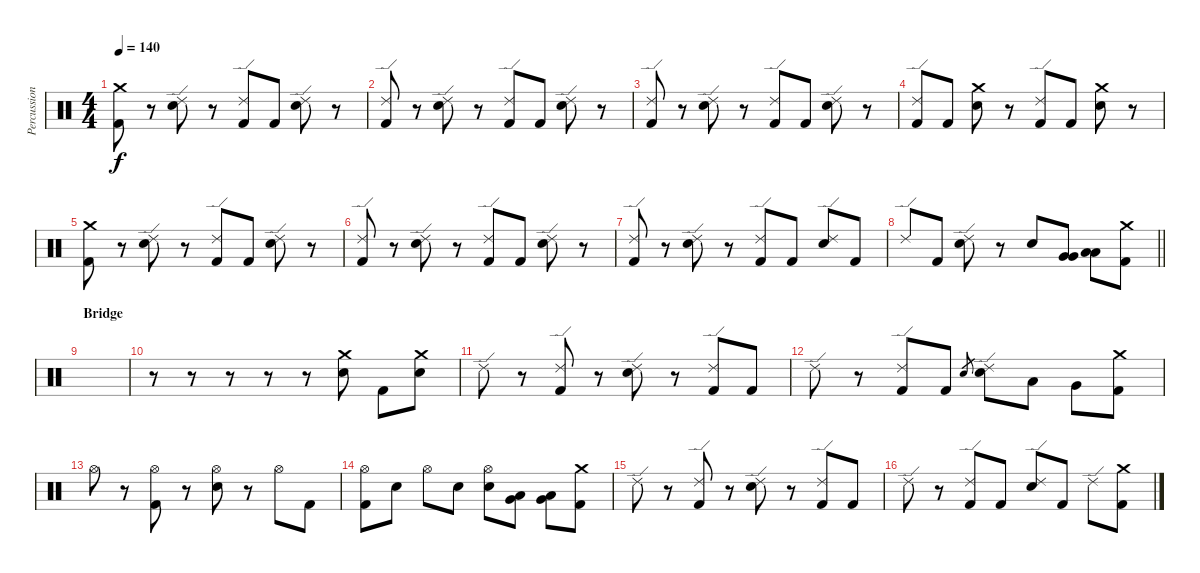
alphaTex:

\track ("Percussion" "Percussion") {instrument percussion}
\staff {score}
\articulation defaults
\ts (4 4)
\tempo 140
\clef neutral
\ks c
("Crash medium (hit)" "Kick (hit) 2").8{dy f} r.8 ("Ride (edge) 2" "Electric Snare (hit)").8 r.8 ("Ride (edge) 2" "Kick (hit) 2").8 "Kick (hit) 2".8 ("Ride (edge) 2" "Electric Snare (hit)").8 r.8 |
("Ride (edge) 2" "Kick (hit) 2").8 r.8 ("Ride (edge) 2" "Electric Snare (hit)").8 r.8 ("Ride (edge) 2" "Kick (hit) 2").8 "Kick (hit) 2".8 ("Ride (edge) 2" "Electric Snare (hit)").8 r.8 |
("Ride (edge) 2" "Kick (hit) 2").8 r.8 ("Ride (edge) 2" "Electric Snare (hit)").8 r.8 ("Ride (edge) 2" "Kick (hit) 2").8 "Kick (hit) 2".8 ("Ride (edge) 2" "Electric Snare (hit)").8 r.8 |
("Ride (edge) 2" "Kick (hit) 2").8 "Kick (hit) 2".8 ("Crash medium (hit)" "Electric Snare (hit)").8 r.8 ("Ride (edge) 2" "Kick (hit) 2").8 "Kick (hit) 2".8 ("Crash medium (hit)" "Electric Snare (hit)").8 r.8 |
("Crash medium (hit)" "Kick (hit) 2").8 r.8 ("Ride (edge) 2" "Electric Snare (hit)").8 r.8 ("Ride (edge) 2" "Kick (hit) 2").8 "Kick (hit) 2".8 ("Ride (edge) 2" "Electric Snare (hit)").8 r.8 |
("Ride (edge) 2" "Kick (hit) 2").8 r.8 ("Ride (edge) 2" "Electric Snare (hit)").8 r.8 ("Ride (edge) 2" "Kick (hit) 2").8 "Kick (hit) 2".8 ("Ride (edge) 2" "Electric Snare (hit)").8 r.8 |
("Ride (edge) 2" "Kick (hit) 2").8 r.8 ("Ride (edge) 2" "Electric Snare (hit)").8 r.8 ("Ride (edge) 2" "Kick (hit) 2").8 "Kick (hit) 2".8 ("Ride (edge) 2" "Electric Snare (hit)").8 "Kick (hit) 2".8 |
\barLineRight lightlight "Ride (edge) 2".8 "Kick (hit) 2".8
("Ride (edge) 2" "Electric Snare (hit)").8 r.8 "Electric Snare (hit)".8 ("Very Low Tom (hit)" "Very Low Tom (hit)").8 ("Low Tom (hit)" "Low Tom (hit)").8 ("Kick (hit) 2" "Crash medium (hit)").8 |
\section ("" "Bridge")
|
r.8 r.8 r.8 r.8 r.8 ("Crash medium (hit)" "Electric Snare (hit)").8 "Kick (hit) 2".8 ("Crash medium (hit)" "Electric Snare (hit)").8 |
"Ride (edge) 2".8 r.8 ("Ride (edge) 2" "Kick (hit) 2").8 r.8 ("Ride (edge) 2" "Electric Snare (hit)").8 r.8 ("Ride (edge) 2" "Kick (hit) 2").8 "Kick (hit) 2".8 |
"Ride (edge) 2".8 r.8 ("Ride (edge) 2" "Kick (hit) 2").8 "Kick (hit) 2".8 "Electric Snare (hit)".8{gr} ("Ride (edge) 2" "Electric Snare (hit)").8 "Low Tom (hit)".8 "Very Low Tom (hit)".8 ("Crash medium (hit)" "Kick (hit) 2").8 |
"Hi-Hat (open)".8 r.8 ("Hi-Hat (open)" "Kick (hit) 2").8 r.8 ("Hi-Hat (open)" "Electric Snare (hit)").8 r.8 "Hi-Hat (open)".8 "Kick (hit) 2".8 |
("Hi-Hat (open)" "Kick (hit) 2").8 "Electric Snare (hit)".8 "Hi-Hat (open)".8 "Electric Snare (hit)".8 ("Hi-Hat (open)" "Electric Snare (hit)").8 ("Very Low Tom (hit)" "Low Floor Tom (hit)").8 ("Low Floor Tom (hit)" "Very Low Tom (hit)").8 ("Crash medium (hit)" "Kick (hit) 2").8 |
"Ride (edge) 2".8 r.8 ("Ride (edge) 2" "Kick (hit) 2").8 r.8 ("Ride (edge) 2" "Electric Snare (hit)").8 r.8 ("Ride (edge) 2" "Kick (hit) 2").8 "Kick (hit) 2".8 |
"Ride (edge) 2".8 r.8 ("Ride (edge) 2" "Kick (hit) 2").8 "Kick (hit) 2".8 ("Ride (edge) 2" "Electric Snare (hit)").8 "Kick (hit) 2".8 "Ride (edge) 2".8 ("Crash medium (hit)" "Kick (hit) 2").8
